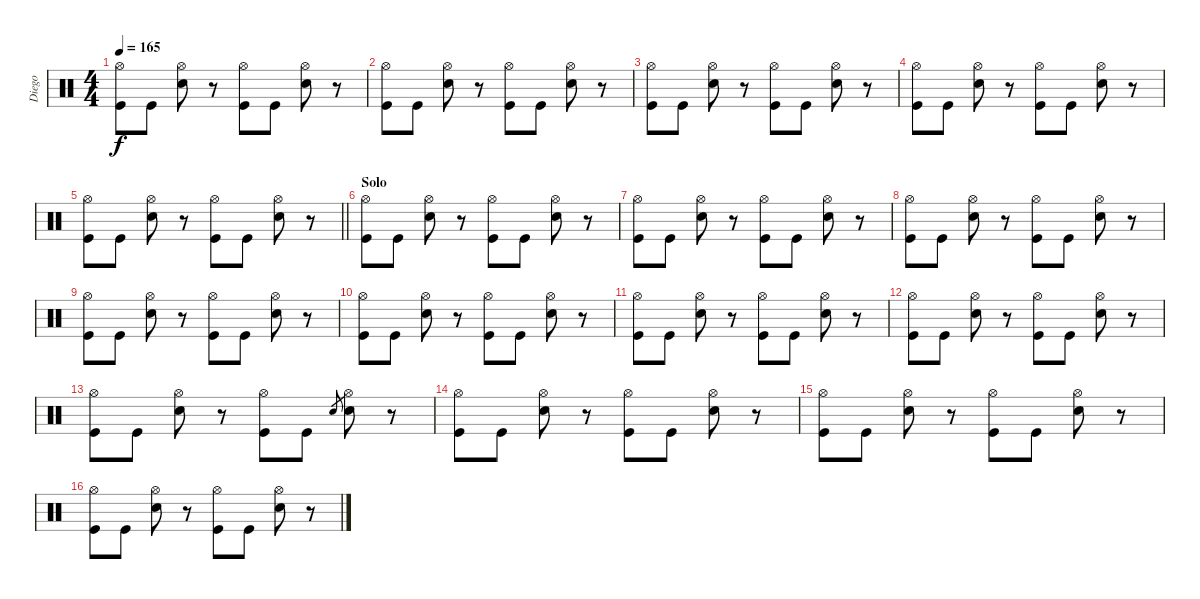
\track ("Diego" "Diego") {instrument percussion}
\staff {score}
\articulation defaults
\ts (4 4)
\tempo 165
\clef neutral
\ks c
("Hi-Hat (open)" "Kick (hit)").8{dy f} "Kick (hit)".8 ("Hi-Hat (open)" "Snare (hit) 2").8 r.8 ("Hi-Hat (open)" "Kick (hit)").8 "Kick (hit)".8 ("Hi-Hat (open)" "Snare (hit) 2").8 r.8 |
("Hi-Hat (open)" "Kick (hit)").8 "Kick (hit)".8 ("Hi-Hat (open)" "Snare (hit) 2").8 r.8 ("Hi-Hat (open)" "Kick (hit)").8 "Kick (hit)".8 ("Hi-Hat (open)" "Snare (hit) 2").8 r.8 |
("Hi-Hat (open)" "Kick (hit)").8 "Kick (hit)".8 ("Hi-Hat (open)" "Snare (hit) 2").8 r.8 ("Hi-Hat (open)" "Kick (hit)").8 "Kick (hit)".8 ("Hi-Hat (open)" "Snare (hit) 2").8 r.8 |
("Hi-Hat (open)" "Kick (hit)").8 "Kick (hit)".8 ("Hi-Hat (open)" "Snare (hit) 2").8 r.8 ("Hi-Hat (open)" "Kick (hit)").8 "Kick (hit)".8 ("Hi-Hat (open)" "Snare (hit) 2").8 r.8 |
\barLineRight lightlight
("Hi-Hat (open)" "Kick (hit)").8 "Kick (hit)".8 ("Hi-Hat (open)" "Snare (hit) 2").8 r.8 ("Hi-Hat (open)" "Kick (hit)").8 "Kick (hit)".8 ("Hi-Hat (open)" "Snare (hit) 2").8 r.8 |
\section ("" "Solo")
("Hi-Hat (open)" "Kick (hit)").8 "Kick (hit)".8 ("Hi-Hat (open)" "Snare (hit) 2").8 r.8 ("Hi-Hat (open)" "Kick (hit)").8 "Kick (hit)".8 ("Hi-Hat (open)" "Snare (hit) 2").8 r.8 |
("Hi-Hat (open)" "Kick (hit)").8 "Kick (hit)".8 ("Hi-Hat (open)" "Snare (hit) 2").8 r.8 ("Hi-Hat (open)" "Kick (hit)").8 "Kick (hit)".8 ("Hi-Hat (open)" "Snare (hit) 2").8 r.8 |
("Hi-Hat (open)" "Kick (hit)").8 "Kick (hit)".8 ("Hi-Hat (open)" "Snare (hit) 2").8 r.8 ("Hi-Hat (open)" "Kick (hit)").8 "Kick (hit)".8 ("Hi-Hat (open)" "Snare (hit) 2").8 r.8 |
("Hi-Hat (open)" "Kick (hit)").8 "Kick (hit)".8 ("Hi-Hat (open)" "Snare (hit) 2").8 r.8 ("Hi-Hat (open)" "Kick (hit)").8 "Kick (hit)".8 ("Hi-Hat (open)" "Snare (hit) 2").8 r.8 |
("Hi-Hat (open)" "Kick (hit)").8 "Kick (hit)".8 ("Hi-Hat (open)" "Snare (hit) 2").8 r.8 ("Hi-Hat (open)" "Kick (hit)").8 "Kick (hit)".8 ("Hi-Hat (open)" "Snare (hit) 2").8 r.8 |
("Hi-Hat (open)" "Kick (hit)").8 "Kick (hit)".8 ("Hi-Hat (open)" "Snare (hit) 2").8 r.8 ("Hi-Hat (open)" "Kick (hit)").8 "Kick (hit)".8 ("Hi-Hat (open)" "Snare (hit) 2").8 r.8 |
("Hi-Hat (open)" "Kick (hit)").8 "Kick (hit)".8 ("Hi-Hat (open)" "Snare (hit) 2").8 r.8 ("Hi-Hat (open)" "Kick (hit)").8 "Kick (hit)".8 ("Hi-Hat (open)" "Snare (hit) 2").8 r.8 |
("Hi-Hat (open)" "Kick (hit)").8 "Kick (hit)".8 ("Hi-Hat (open)" "Snare (hit) 2").8 r.8 ("Hi-Hat (open)" "Kick (hit)").8 "Kick (hit)".8 "Snare (hit) 2".8{gr} ("Hi-Hat (open)" "Snare (hit) 2").8 r.8 |
("Hi-Hat (open)" "Kick (hit)").8 "Kick (hit)".8 ("Hi-Hat (open)" "Snare (hit) 2").8 r.8 ("Hi-Hat (open)" "Kick (hit)").8 "Kick (hit)".8 ("Hi-Hat (open)" "Snare (hit) 2").8 r.8 |
("Hi-Hat (open)" "Kick (hit)").8 "Kick (hit)".8 ("Hi-Hat (open)" "Snare (hit) 2").8 r.8 ("Hi-Hat (open)" "Kick (hit)").8 "Kick (hit)".8 ("Hi-Hat (open)" "Snare (hit) 2").8 r.8 |
("Hi-Hat (open)" "Kick (hit)").8 "Kick (hit)".8 ("Hi-Hat (open)" "Snare (hit) 2").8 r.8 ("Hi-Hat (open)" "Kick (hit)").8 "Kick (hit)".8 ("Hi-Hat (open)" "Snare (hit) 2").8 r.8
